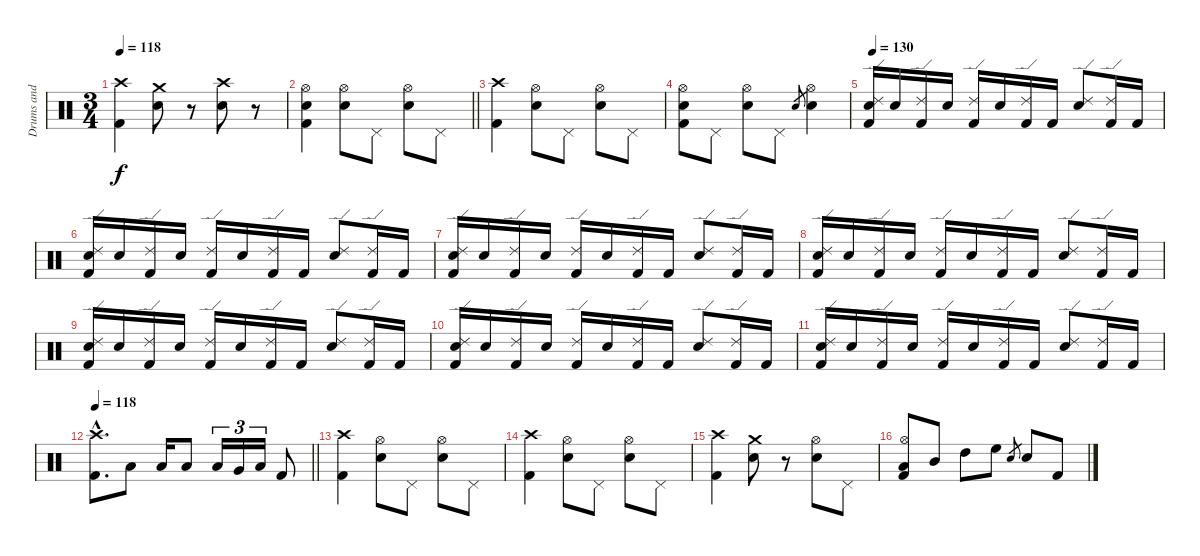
\track ("Drums and percussion" "Drums and ") {instrument percussion}
\staff {score}
\articulation defaults
\ts (3 4)
\tempo 118
\clef neutral
\ks c
("Crash high (hit)" "Kick (hit) 2").4{dy f} ("Crash medium (hit)" "Snare (hit) 2").8 r.8 ("Crash high (hit)" "Snare (hit) 2").8 r.8 |
\barLineRight lightlight
("Hi-Hat (open)" "Snare (hit) 2" "Kick (hit) 2").4 ("Hi-Hat (open)" "Snare (hit) 2").8 "Pedal Hi-Hat (hit)".8 ("Hi-Hat (open)" "Snare (hit) 2").8 "Pedal Hi-Hat (hit)".8 |
("Crash high (hit)" "Kick (hit) 2").4 ("Hi-Hat (open)" "Snare (hit) 2").8 "Pedal Hi-Hat (hit)".8 ("Hi-Hat (open)" "Snare (hit) 2").8 "Pedal Hi-Hat (hit)".8 |
("Hi-Hat (open)" "Snare (hit) 2" "Kick (hit) 2").8 "Pedal Hi-Hat (hit)".8 ("Hi-Hat (open)" "Snare (hit) 2").8 "Pedal Hi-Hat (hit)".8 "Snare (hit) 2".8{gr} ("Hi-Hat (open)" "Snare (hit) 2").4 |
\tempo 130
("Ride (edge) 2" "Electric Snare (hit)" "Kick (hit) 2").16 "Electric Snare (hit)".16 ("Ride (edge) 2" "Kick (hit) 2").16 "Electric Snare (hit)".16 ("Ride (edge) 2" "Kick (hit) 2").16 "Electric Snare (hit)".16 ("Ride (edge) 2" "Kick (hit) 2").16 "Kick (hit) 2".16 ("Ride (edge) 2" "Electric Snare (hit)").8 ("Ride (edge) 2" "Kick (hit) 2").16 "Kick (hit) 2".16 |
("Ride (edge) 2" "Electric Snare (hit)" "Kick (hit) 2").16 "Electric Snare (hit)".16 ("Ride (edge) 2" "Kick (hit) 2").16 "Electric Snare (hit)".16 ("Ride (edge) 2" "Kick (hit) 2").16 "Electric Snare (hit)".16 ("Ride (edge) 2" "Kick (hit) 2").16 "Kick (hit) 2".16 ("Ride (edge) 2" "Electric Snare (hit)").8 ("Ride (edge) 2" "Kick (hit) 2").16 "Kick (hit) 2".16 |
("Ride (edge) 2" "Electric Snare (hit)" "Kick (hit) 2").16 "Electric Snare (hit)".16 ("Ride (edge) 2" "Kick (hit) 2").16 "Electric Snare (hit)".16 ("Ride (edge) 2" "Kick (hit) 2").16 "Electric Snare (hit)".16 ("Ride (edge) 2" "Kick (hit) 2").16 "Kick (hit) 2".16 ("Ride (edge) 2" "Electric Snare (hit)").8 ("Ride (edge) 2" "Kick (hit) 2").16 "Kick (hit) 2".16 |
("Ride (edge) 2" "Electric Snare (hit)" "Kick (hit) 2").16 "Electric Snare (hit)".16 ("Ride (edge) 2" "Kick (hit) 2").16 "Electric Snare (hit)".16 ("Ride (edge) 2" "Kick (hit) 2").16 "Electric Snare (hit)".16 ("Ride (edge) 2" "Kick (hit) 2").16 "Kick (hit) 2".16 ("Ride (edge) 2" "Electric Snare (hit)").8 ("Ride (edge) 2" "Kick (hit) 2").16 "Kick (hit) 2".16 |
("Ride (edge) 2" "Electric Snare (hit)" "Kick (hit) 2").16 "Electric Snare (hit)".16 ("Ride (edge) 2" "Kick (hit) 2").16 "Electric Snare (hit)".16 ("Ride (edge) 2" "Kick (hit) 2").16 "Electric Snare (hit)".16 ("Ride (edge) 2" "Kick (hit) 2").16 "Kick (hit) 2".16 ("Ride (edge) 2" "Electric Snare (hit)").8 ("Ride (edge) 2" "Kick (hit) 2").16 "Kick (hit) 2".16 |
("Ride (edge) 2" "Electric Snare (hit)" "Kick (hit) 2").16 "Electric Snare (hit)".16 ("Ride (edge) 2" "Kick (hit) 2").16 "Electric Snare (hit)".16 ("Ride (edge) 2" "Kick (hit) 2").16 "Electric Snare (hit)".16 ("Ride (edge) 2" "Kick (hit) 2").16 "Kick (hit) 2".16 ("Ride (edge) 2" "Electric Snare (hit)").8 ("Ride (edge) 2" "Kick (hit) 2").16 "Kick (hit) 2".16 |
("Ride (edge) 2" "Electric Snare (hit)" "Kick (hit) 2").16 "Electric Snare (hit)".16 ("Ride (edge) 2" "Kick (hit) 2").16 "Electric Snare (hit)".16 ("Ride (edge) 2" "Kick (hit) 2").16 "Electric Snare (hit)".16 ("Ride (edge) 2" "Kick (hit) 2").16 "Kick (hit) 2".16 ("Ride (edge) 2" "Electric Snare (hit)").8 ("Ride (edge) 2" "Kick (hit) 2").16 "Kick (hit) 2".16 |
\tempo 118
\barLineRight lightlight
("Crash high (hit)"{hac} "Kick (hit) 2"{hac}).8{d} "Low Tom (hit)".8 "Low Tom (hit)".16 "Low Tom (hit)".8 "Low Tom (hit)".16{tu (3 2)} "Very Low Tom (hit)".16{tu (3 2)} "Low Floor Tom (hit)".16{tu (3 2)} "Kick (hit) 2".8 |
("Crash high (hit)" "Kick (hit) 2").4 ("Hi-Hat (open)" "Snare (hit) 2").8 "Pedal Hi-Hat (hit)".8 ("Hi-Hat (open)" "Snare (hit) 2").8 "Pedal Hi-Hat (hit)".8 |
("Crash high (hit)" "Kick (hit) 2").4 ("Hi-Hat (open)" "Snare (hit) 2").8 "Pedal Hi-Hat (hit)".8 ("Hi-Hat (open)" "Snare (hit) 2").8 "Pedal Hi-Hat (hit)".8 |
("Crash high (hit)" "Kick (hit) 2").4 ("Crash medium (hit)" "Snare (hit) 2").8 r.8 ("Hi-Hat (open)" "Snare (hit) 2").8 "Pedal Hi-Hat (hit)".8 |
("Hi-Hat (open)" "Low Tom (hit)" "Kick (hit) 2").8 "Mid Tom (hit)".8 "High Tom (hit)".8 "High Floor Tom (hit)".8 "Snare (hit) 2".8{gr} "Snare (hit) 2".8 "Kick (hit) 2".8
